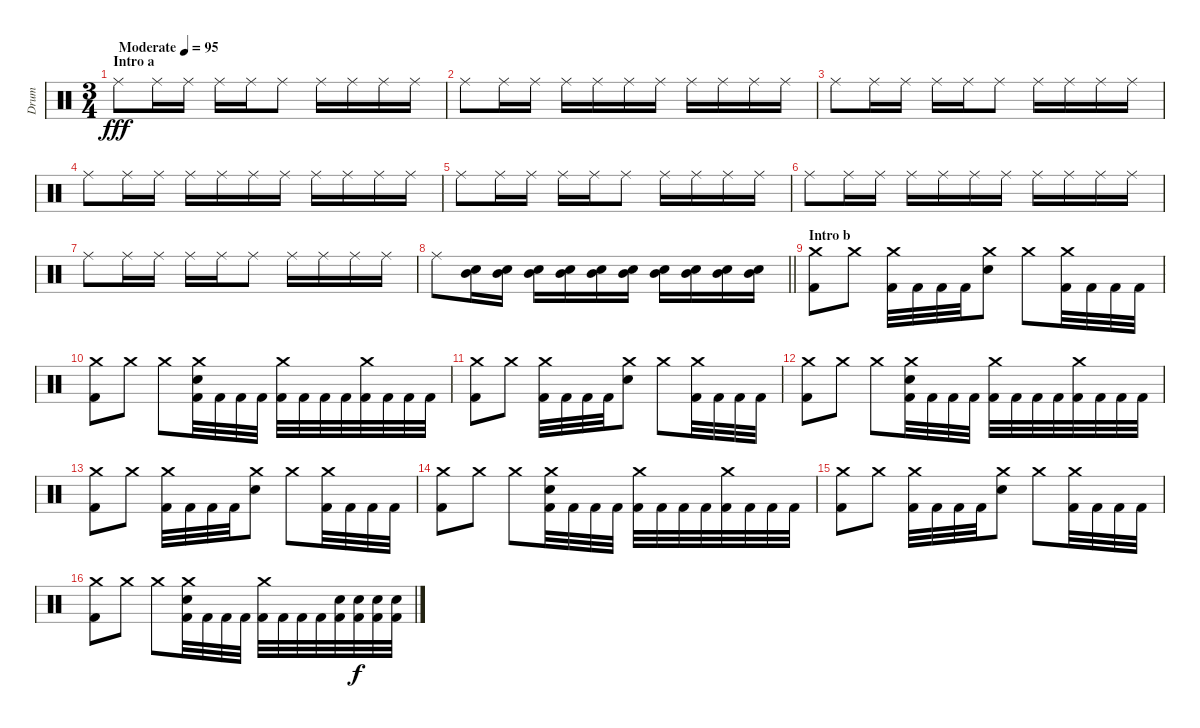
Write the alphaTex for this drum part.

\track ("Drum" "Drum") {instrument percussion}
\staff {score}
\articulation defaults
\ts (3 4)
\section ("" "Intro a")
\tempo (95 "Moderate")
\clef neutral
\ks c "Ride (middle)".8{dy fff} "Ride (middle)".16 "Ride (middle)".16 "Ride (middle)".16 "Ride (middle)".16 "Ride (middle)".8 "Ride (middle)".16 "Ride (middle)".16 "Ride (middle)".16 "Ride (middle)".16
|
"Ride (middle)".8 "Ride (middle)".16 "Ride (middle)".16 "Ride (middle)".16 "Ride (middle)".16 "Ride (middle)".16 "Ride (middle)".16 "Ride (middle)".16 "Ride (middle)".16 "Ride (middle)".16 "Ride (middle)".16 |
"Ride (middle)".8 "Ride (middle)".16 "Ride (middle)".16 "Ride (middle)".16 "Ride (middle)".16 "Ride (middle)".8 "Ride (middle)".16 "Ride (middle)".16 "Ride (middle)".16 "Ride (middle)".16 |
"Ride (middle)".8 "Ride (middle)".16 "Ride (middle)".16 "Ride (middle)".16 "Ride (middle)".16 "Ride (middle)".16 "Ride (middle)".16 "Ride (middle)".16 "Ride (middle)".16 "Ride (middle)".16 "Ride (middle)".16 |
"Ride (middle)".8 "Ride (middle)".16 "Ride (middle)".16 "Ride (middle)".16 "Ride (middle)".16 "Ride (middle)".8 "Ride (middle)".16 "Ride (middle)".16 "Ride (middle)".16 "Ride (middle)".16 |
"Ride (middle)".8 "Ride (middle)".16 "Ride (middle)".16 "Ride (middle)".16 "Ride (middle)".16 "Ride (middle)".16 "Ride (middle)".16 "Ride (middle)".16 "Ride (middle)".16 "Ride (middle)".16 "Ride (middle)".16 |
"Ride (middle)".8 "Ride (middle)".16 "Ride (middle)".16 "Ride (middle)".16 "Ride (middle)".16 "Ride (middle)".8 "Ride (middle)".16 "Ride (middle)".16 "Ride (middle)".16 "Ride (middle)".16 |
\barLineRight lightlight "Ride (middle)".8
("Electric Snare (hit)" "Mid Tom (hit)").16{volume 0} ("Electric Snare (hit)" "Mid Tom (hit)").16{volume 16} ("Electric Snare (hit)" "Mid Tom (hit)").16 ("Electric Snare (hit)" "Mid Tom (hit)").16 ("Electric Snare (hit)" "Mid Tom (hit)").16 ("Electric Snare (hit)" "Mid Tom (hit)").16 ("Electric Snare (hit)" "Mid Tom (hit)").16 ("Electric Snare (hit)" "Mid Tom (hit)").16 ("Electric Snare (hit)" "Mid Tom (hit)").16 ("Electric Snare (hit)" "Mid Tom (hit)").16 |
\section ("" "Intro b")
("Crash medium (hit)" "Kick (hit) 2").8 "Crash medium (hit)".8 ("Crash medium (hit)" "Kick (hit) 2").32 "Kick (hit) 2".32 "Kick (hit) 2".32 "Kick (hit) 2".32 ("Crash medium (hit)" "Electric Snare (hit)").8 "Crash medium (hit)".8 ("Crash medium (hit)" "Kick (hit) 2").32 "Kick (hit) 2".32 "Kick (hit) 2".32 "Kick (hit) 2".32 |
("Crash medium (hit)" "Kick (hit) 2").8 "Crash medium (hit)".8 "Crash medium (hit)".8 ("Crash medium (hit)" "Electric Snare (hit)" "Kick (hit) 2").32 "Kick (hit) 2".32 "Kick (hit) 2".32 "Kick (hit) 2".32 ("Crash medium (hit)" "Kick (hit) 2").32 "Kick (hit) 2".32 "Kick (hit) 2".32 "Kick (hit) 2".32 ("Crash medium (hit)" "Kick (hit) 2").32 "Kick (hit) 2".32 "Kick (hit) 2".32 "Kick (hit) 2".32 |
("Crash medium (hit)" "Kick (hit) 2").8 "Crash medium (hit)".8 ("Crash medium (hit)" "Kick (hit) 2").32 "Kick (hit) 2".32 "Kick (hit) 2".32 "Kick (hit) 2".32 ("Crash medium (hit)" "Electric Snare (hit)").8 "Crash medium (hit)".8 ("Crash medium (hit)" "Kick (hit) 2").32 "Kick (hit) 2".32 "Kick (hit) 2".32 "Kick (hit) 2".32 |
("Crash medium (hit)" "Kick (hit) 2").8 "Crash medium (hit)".8 "Crash medium (hit)".8 ("Crash medium (hit)" "Electric Snare (hit)" "Kick (hit) 2").32 "Kick (hit) 2".32 "Kick (hit) 2".32 "Kick (hit) 2".32 ("Crash medium (hit)" "Kick (hit) 2").32 "Kick (hit) 2".32 "Kick (hit) 2".32 "Kick (hit) 2".32 ("Crash medium (hit)" "Kick (hit) 2").32 "Kick (hit) 2".32 "Kick (hit) 2".32 "Kick (hit) 2".32 |
("Crash medium (hit)" "Kick (hit) 2").8 "Crash medium (hit)".8 ("Crash medium (hit)" "Kick (hit) 2").32 "Kick (hit) 2".32 "Kick (hit) 2".32 "Kick (hit) 2".32 ("Crash medium (hit)" "Electric Snare (hit)").8 "Crash medium (hit)".8 ("Crash medium (hit)" "Kick (hit) 2").32 "Kick (hit) 2".32 "Kick (hit) 2".32 "Kick (hit) 2".32 |
("Crash medium (hit)" "Kick (hit) 2").8 "Crash medium (hit)".8 "Crash medium (hit)".8 ("Crash medium (hit)" "Electric Snare (hit)" "Kick (hit) 2").32 "Kick (hit) 2".32 "Kick (hit) 2".32 "Kick (hit) 2".32 ("Crash medium (hit)" "Kick (hit) 2").32 "Kick (hit) 2".32 "Kick (hit) 2".32 "Kick (hit) 2".32 ("Crash medium (hit)" "Kick (hit) 2").32 "Kick (hit) 2".32 "Kick (hit) 2".32 "Kick (hit) 2".32 |
("Crash medium (hit)" "Kick (hit) 2").8 "Crash medium (hit)".8 ("Crash medium (hit)" "Kick (hit) 2").32 "Kick (hit) 2".32 "Kick (hit) 2".32 "Kick (hit) 2".32 ("Crash medium (hit)" "Electric Snare (hit)").8 "Crash medium (hit)".8 ("Crash medium (hit)" "Kick (hit) 2").32 "Kick (hit) 2".32 "Kick (hit) 2".32 "Kick (hit) 2".32 |
("Crash medium (hit)" "Kick (hit) 2").8 "Crash medium (hit)".8 "Crash medium (hit)".8 ("Crash medium (hit)" "Electric Snare (hit)" "Kick (hit) 2").32 "Kick (hit) 2".32 "Kick (hit) 2".32 "Kick (hit) 2".32 ("Crash medium (hit)" "Kick (hit) 2").32 "Kick (hit) 2".32 "Kick (hit) 2".32 "Kick (hit) 2".32 ("Electric Snare (hit)" "Kick (hit) 2").32 ("Electric Snare (hit)" "Kick (hit) 2").32{dy f} ("Electric Snare (hit)" "Kick (hit) 2").32 ("Electric Snare (hit)" "Kick (hit) 2").32
